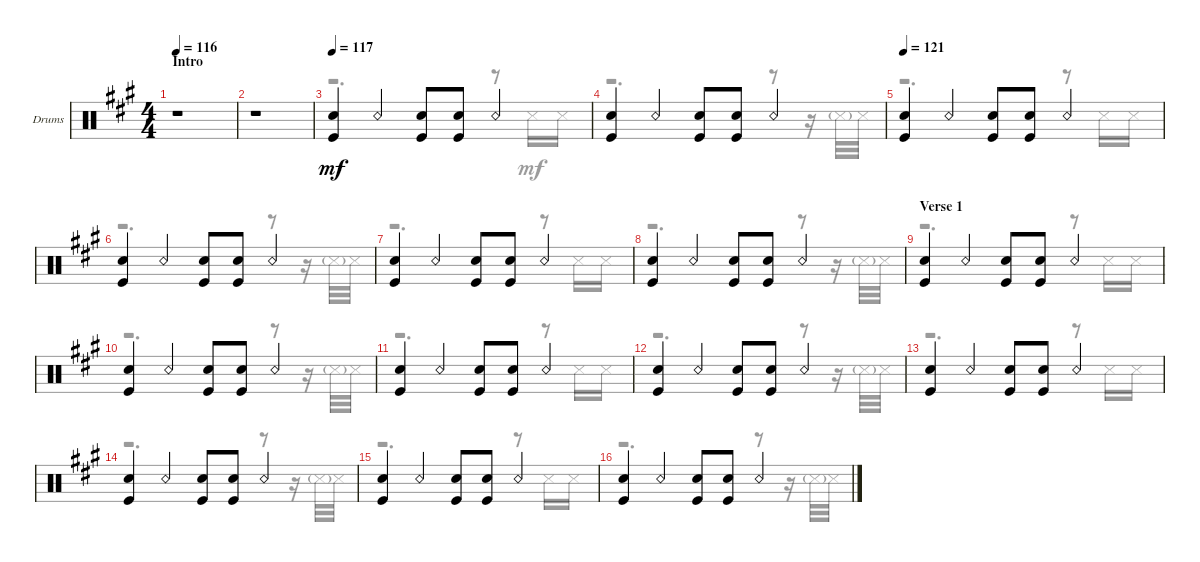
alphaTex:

\defaultSystemsLayout 4
\bracketExtendMode groupsimilarinstruments
\firstSystemTrackNameOrientation horizontal
\otherSystemsTrackNameOrientation horizontal
\track ("Drumkit" "Drums") {instrument percussion}
\staff {score}
\articulation defaults
\voice
\ts (4 4)
\section ("" "Intro")
\tempo 116
\clef neutral
\scale
0.529412
\ks a
r.1{dy mf} |
\scale
0.235294 r.1 |
\tempo 117
\scale
0.235294 ("Kick (hit)" "Snare (hit) 2").4 "Snare (rim shot)".4 ("Kick (hit)" "Snare (hit) 2").8 ("Kick (hit)" "Snare (hit) 2").8 "Snare (rim shot)".4 |
\scale
0.333333 ("Kick (hit)" "Snare (hit) 2").4 "Snare (rim shot)".4 ("Kick (hit)" "Snare (hit) 2").8 ("Kick (hit)" "Snare (hit) 2").8 "Snare (rim shot)".4 |
\tempo 121
\scale
0.333333 ("Kick (hit)" "Snare (hit) 2").4 "Snare (rim shot)".4 ("Kick (hit)" "Snare (hit) 2").8 ("Kick (hit)" "Snare (hit) 2").8 "Snare (rim shot)".4 |
\scale
0.333333 ("Kick (hit)" "Snare (hit) 2").4 "Snare (rim shot)".4 ("Kick (hit)" "Snare (hit) 2").8 ("Kick (hit)" "Snare (hit) 2").8 "Snare (rim shot)".4 |
("Kick (hit)" "Snare (hit) 2").4 "Snare (rim shot)".4 ("Kick (hit)" "Snare (hit) 2").8 ("Kick (hit)" "Snare (hit) 2").8 "Snare (rim shot)".4 |
("Kick (hit)" "Snare (hit) 2").4 "Snare (rim shot)".4 ("Kick (hit)" "Snare (hit) 2").8 ("Kick (hit)" "Snare (hit) 2").8 "Snare (rim shot)".4 |
\section ("" "Verse 1")
("Kick (hit)" "Snare (hit) 2").4 "Snare (rim shot)".4 ("Kick (hit)" "Snare (hit) 2").8 ("Kick (hit)" "Snare (hit) 2").8 "Snare (rim shot)".4 |
("Kick (hit)" "Snare (hit) 2").4 "Snare (rim shot)".4 ("Kick (hit)" "Snare (hit) 2").8 ("Kick (hit)" "Snare (hit) 2").8 "Snare (rim shot)".4 |
("Kick (hit)" "Snare (hit) 2").4 "Snare (rim shot)".4 ("Kick (hit)" "Snare (hit) 2").8 ("Kick (hit)" "Snare (hit) 2").8 "Snare (rim shot)".4 |
("Kick (hit)" "Snare (hit) 2").4 "Snare (rim shot)".4 ("Kick (hit)" "Snare (hit) 2").8 ("Kick (hit)" "Snare (hit) 2").8 "Snare (rim shot)".4 |
("Kick (hit)" "Snare (hit) 2").4 "Snare (rim shot)".4 ("Kick (hit)" "Snare (hit) 2").8 ("Kick (hit)" "Snare (hit) 2").8 "Snare (rim shot)".4 |
("Kick (hit)" "Snare (hit) 2").4 "Snare (rim shot)".4 ("Kick (hit)" "Snare (hit) 2").8 ("Kick (hit)" "Snare (hit) 2").8 "Snare (rim shot)".4 |
("Kick (hit)" "Snare (hit) 2").4 "Snare (rim shot)".4 ("Kick (hit)" "Snare (hit) 2").8 ("Kick (hit)" "Snare (hit) 2").8 "Snare (rim shot)".4 |
("Kick (hit)" "Snare (hit) 2").4 "Snare (rim shot)".4 ("Kick (hit)" "Snare (hit) 2").8 ("Kick (hit)" "Snare (hit) 2").8 "Snare (rim shot)".4
\voice
\clef neutral
\ottava regular
\simile none
\scale
0.529412
\ks a
|
\scale
0.235294 |
\scale
0.235294 r.2{d} r.8 "Snare (side stick) 3".16 "Snare (side stick) 3".16 |
\scale
0.333333 r.2{d} r.8 r.16 "Snare (side stick) 3"{g}.32 "Snare (side stick) 3".32 |
\scale
0.333333 r.2{d} r.8 "Snare (side stick) 3".16 "Snare (side stick) 3".16 |
\scale
0.333333 r.2{d} r.8 r.16 "Snare (side stick) 3"{g}.32 "Snare (side stick) 3".32 |
r.2{d} r.8 "Snare (side stick) 3".16 "Snare (side stick) 3".16 |
r.2{d} r.8 r.16 "Snare (side stick) 3"{g}.32 "Snare (side stick) 3".32 |
r.2{d} r.8 "Snare (side stick) 3".16 "Snare (side stick) 3".16 |
r.2{d} r.8 r.16 "Snare (side stick) 3"{g}.32 "Snare (side stick) 3".32 |
r.2{d} r.8 "Snare (side stick) 3".16 "Snare (side stick) 3".16 |
r.2{d} r.8 r.16 "Snare (side stick) 3"{g}.32 "Snare (side stick) 3".32 |
r.2{d} r.8 "Snare (side stick) 3".16 "Snare (side stick) 3".16 |
r.2{d} r.8 r.16 "Snare (side stick) 3"{g}.32 "Snare (side stick) 3".32 |
r.2{d} r.8 "Snare (side stick) 3".16 "Snare (side stick) 3".16 |
r.2{d} r.8 r.16 "Snare (side stick) 3"{g}.32 "Snare (side stick) 3".32
